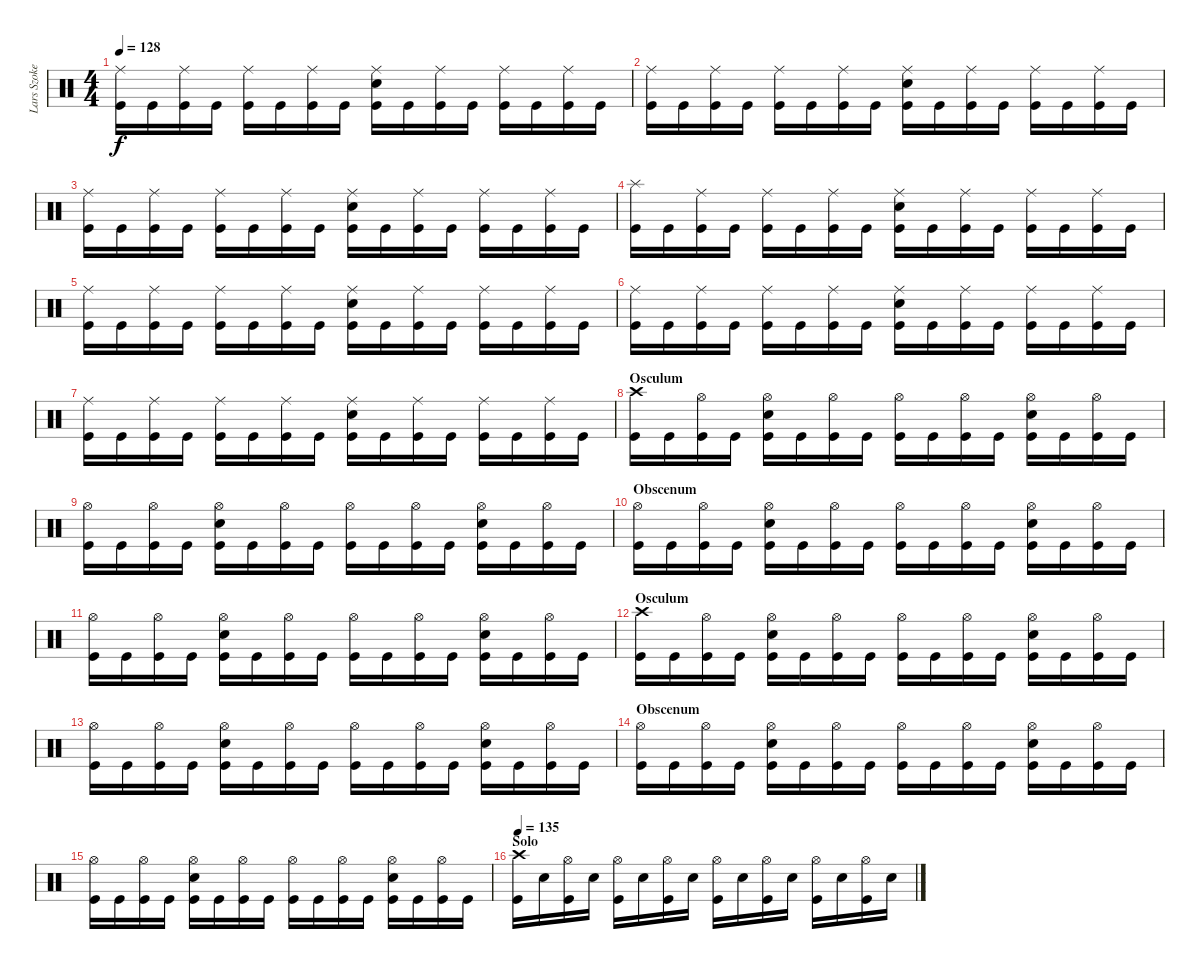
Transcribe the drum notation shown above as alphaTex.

\track ("Lars Szoke" "Lars Szoke") {instrument percussion}
\staff {score}
\articulation defaults
\ts (4 4)
\tempo 128
\clef neutral
\ks c
("Ride (middle)" "Kick (hit)").16{dy f} "Kick (hit)".16 ("Ride (middle)" "Kick (hit)").16 "Kick (hit)".16 ("Ride (middle)" "Kick (hit)").16 "Kick (hit)".16 ("Ride (middle)" "Kick (hit)").16 "Kick (hit)".16 ("Ride (middle)" "Snare (hit) 2" "Kick (hit)").16 "Kick (hit)".16 ("Ride (middle)" "Kick (hit)").16 "Kick (hit)".16 ("Ride (middle)" "Kick (hit)").16 "Kick (hit)".16 ("Ride (middle)" "Kick (hit)").16 "Kick (hit)".16 |
("Ride (middle)" "Kick (hit)").16 "Kick (hit)".16 ("Ride (middle)" "Kick (hit)").16 "Kick (hit)".16 ("Ride (middle)" "Kick (hit)").16 "Kick (hit)".16 ("Ride (middle)" "Kick (hit)").16 "Kick (hit)".16 ("Ride (middle)" "Snare (hit) 2" "Kick (hit)").16 "Kick (hit)".16 ("Ride (middle)" "Kick (hit)").16 "Kick (hit)".16 ("Ride (middle)" "Kick (hit)").16 "Kick (hit)".16 ("Ride (middle)" "Kick (hit)").16 "Kick (hit)".16 |
("Ride (middle)" "Kick (hit)").16 "Kick (hit)".16 ("Ride (middle)" "Kick (hit)").16 "Kick (hit)".16 ("Ride (middle)" "Kick (hit)").16 "Kick (hit)".16 ("Ride (middle)" "Kick (hit)").16 "Kick (hit)".16 ("Ride (middle)" "Snare (hit) 2" "Kick (hit)").16 "Kick (hit)".16 ("Ride (middle)" "Kick (hit)").16 "Kick (hit)".16 ("Ride (middle)" "Kick (hit)").16 "Kick (hit)".16 ("Ride (middle)" "Kick (hit)").16 "Kick (hit)".16 |
("Splash (hit)" "Kick (hit)").16 "Kick (hit)".16 ("Ride (middle)" "Kick (hit)").16 "Kick (hit)".16 ("Ride (middle)" "Kick (hit)").16 "Kick (hit)".16 ("Ride (middle)" "Kick (hit)").16 "Kick (hit)".16 ("Ride (middle)" "Snare (hit) 2" "Kick (hit)").16 "Kick (hit)".16 ("Ride (middle)" "Kick (hit)").16 "Kick (hit)".16 ("Ride (middle)" "Kick (hit)").16 "Kick (hit)".16 ("Ride (middle)" "Kick (hit)").16 "Kick (hit)".16 |
("Ride (middle)" "Kick (hit)").16 "Kick (hit)".16 ("Ride (middle)" "Kick (hit)").16 "Kick (hit)".16 ("Ride (middle)" "Kick (hit)").16 "Kick (hit)".16 ("Ride (middle)" "Kick (hit)").16 "Kick (hit)".16 ("Ride (middle)" "Snare (hit) 2" "Kick (hit)").16 "Kick (hit)".16 ("Ride (middle)" "Kick (hit)").16 "Kick (hit)".16 ("Ride (middle)" "Kick (hit)").16 "Kick (hit)".16 ("Ride (middle)" "Kick (hit)").16 "Kick (hit)".16 |
("Ride (middle)" "Kick (hit)").16 "Kick (hit)".16 ("Ride (middle)" "Kick (hit)").16 "Kick (hit)".16 ("Ride (middle)" "Kick (hit)").16 "Kick (hit)".16 ("Ride (middle)" "Kick (hit)").16 "Kick (hit)".16 ("Ride (middle)" "Snare (hit) 2" "Kick (hit)").16 "Kick (hit)".16 ("Ride (middle)" "Kick (hit)").16 "Kick (hit)".16 ("Ride (middle)" "Kick (hit)").16 "Kick (hit)".16 ("Ride (middle)" "Kick (hit)").16 "Kick (hit)".16 |
("Ride (middle)" "Kick (hit)").16 "Kick (hit)".16 ("Ride (middle)" "Kick (hit)").16 "Kick (hit)".16 ("Ride (middle)" "Kick (hit)").16 "Kick (hit)".16 ("Ride (middle)" "Kick (hit)").16 "Kick (hit)".16 ("Ride (middle)" "Snare (hit) 2" "Kick (hit)").16 "Kick (hit)".16 ("Ride (middle)" "Kick (hit)").16 "Kick (hit)".16 ("Ride (middle)" "Kick (hit)").16 "Kick (hit)".16 ("Ride (middle)" "Kick (hit)").16 "Kick (hit)".16 |
\section ("" "Osculum")
("Crash high (hit)" "Kick (hit)").16 "Kick (hit)".16 ("Hi-Hat (open)" "Kick (hit)").16 "Kick (hit)".16 ("Hi-Hat (open)" "Snare (hit) 2" "Kick (hit)").16 "Kick (hit)".16 ("Hi-Hat (open)" "Kick (hit)").16 "Kick (hit)".16 ("Hi-Hat (open)" "Kick (hit)").16 "Kick (hit)".16 ("Hi-Hat (open)" "Kick (hit)").16 "Kick (hit)".16 ("Hi-Hat (open)" "Snare (hit) 2" "Kick (hit)").16 "Kick (hit)".16 ("Hi-Hat (open)" "Kick (hit)").16 "Kick (hit)".16 |
("Hi-Hat (open)" "Kick (hit)").16 "Kick (hit)".16 ("Hi-Hat (open)" "Kick (hit)").16 "Kick (hit)".16 ("Hi-Hat (open)" "Snare (hit) 2" "Kick (hit)").16 "Kick (hit)".16 ("Hi-Hat (open)" "Kick (hit)").16 "Kick (hit)".16 ("Hi-Hat (open)" "Kick (hit)").16 "Kick (hit)".16 ("Hi-Hat (open)" "Kick (hit)").16 "Kick (hit)".16 ("Hi-Hat (open)" "Snare (hit) 2" "Kick (hit)").16 "Kick (hit)".16 ("Hi-Hat (open)" "Kick (hit)").16 "Kick (hit)".16 |
\section ("" "Obscenum")
("Hi-Hat (open)" "Kick (hit)").16 "Kick (hit)".16 ("Hi-Hat (open)" "Kick (hit)").16 "Kick (hit)".16 ("Hi-Hat (open)" "Snare (hit) 2" "Kick (hit)").16 "Kick (hit)".16 ("Hi-Hat (open)" "Kick (hit)").16 "Kick (hit)".16 ("Hi-Hat (open)" "Kick (hit)").16 "Kick (hit)".16 ("Hi-Hat (open)" "Kick (hit)").16 "Kick (hit)".16 ("Hi-Hat (open)" "Snare (hit) 2" "Kick (hit)").16 "Kick (hit)".16 ("Hi-Hat (open)" "Kick (hit)").16 "Kick (hit)".16 |
("Hi-Hat (open)" "Kick (hit)").16 "Kick (hit)".16 ("Hi-Hat (open)" "Kick (hit)").16 "Kick (hit)".16 ("Hi-Hat (open)" "Snare (hit) 2" "Kick (hit)").16 "Kick (hit)".16 ("Hi-Hat (open)" "Kick (hit)").16 "Kick (hit)".16 ("Hi-Hat (open)" "Kick (hit)").16 "Kick (hit)".16 ("Hi-Hat (open)" "Kick (hit)").16 "Kick (hit)".16 ("Hi-Hat (open)" "Snare (hit) 2" "Kick (hit)").16 "Kick (hit)".16 ("Hi-Hat (open)" "Kick (hit)").16 "Kick (hit)".16 |
\section ("" "Osculum")
("Crash high (hit)" "Kick (hit)").16 "Kick (hit)".16 ("Hi-Hat (open)" "Kick (hit)").16 "Kick (hit)".16 ("Hi-Hat (open)" "Snare (hit) 2" "Kick (hit)").16 "Kick (hit)".16 ("Hi-Hat (open)" "Kick (hit)").16 "Kick (hit)".16 ("Hi-Hat (open)" "Kick (hit)").16 "Kick (hit)".16 ("Hi-Hat (open)" "Kick (hit)").16 "Kick (hit)".16 ("Hi-Hat (open)" "Snare (hit) 2" "Kick (hit)").16 "Kick (hit)".16 ("Hi-Hat (open)" "Kick (hit)").16 "Kick (hit)".16 |
("Hi-Hat (open)" "Kick (hit)").16 "Kick (hit)".16 ("Hi-Hat (open)" "Kick (hit)").16 "Kick (hit)".16 ("Hi-Hat (open)" "Snare (hit) 2" "Kick (hit)").16 "Kick (hit)".16 ("Hi-Hat (open)" "Kick (hit)").16 "Kick (hit)".16 ("Hi-Hat (open)" "Kick (hit)").16 "Kick (hit)".16 ("Hi-Hat (open)" "Kick (hit)").16 "Kick (hit)".16 ("Hi-Hat (open)" "Snare (hit) 2" "Kick (hit)").16 "Kick (hit)".16 ("Hi-Hat (open)" "Kick (hit)").16 "Kick (hit)".16 |
\section ("" "Obscenum")
("Hi-Hat (open)" "Kick (hit)").16 "Kick (hit)".16 ("Hi-Hat (open)" "Kick (hit)").16 "Kick (hit)".16 ("Hi-Hat (open)" "Snare (hit) 2" "Kick (hit)").16 "Kick (hit)".16 ("Hi-Hat (open)" "Kick (hit)").16 "Kick (hit)".16 ("Hi-Hat (open)" "Kick (hit)").16 "Kick (hit)".16 ("Hi-Hat (open)" "Kick (hit)").16 "Kick (hit)".16 ("Hi-Hat (open)" "Snare (hit) 2" "Kick (hit)").16 "Kick (hit)".16 ("Hi-Hat (open)" "Kick (hit)").16 "Kick (hit)".16 |
("Hi-Hat (open)" "Kick (hit)").16 "Kick (hit)".16 ("Hi-Hat (open)" "Kick (hit)").16 "Kick (hit)".16 ("Hi-Hat (open)" "Snare (hit) 2" "Kick (hit)").16 "Kick (hit)".16 ("Hi-Hat (open)" "Kick (hit)").16 "Kick (hit)".16 ("Hi-Hat (open)" "Kick (hit)").16 "Kick (hit)".16 ("Hi-Hat (open)" "Kick (hit)").16 "Kick (hit)".16 ("Hi-Hat (open)" "Snare (hit) 2" "Kick (hit)").16 "Kick (hit)".16 ("Hi-Hat (open)" "Kick (hit)").16 "Kick (hit)".16 |
\section ("" "Solo")
\tempo 135
("Crash high (hit)" "Kick (hit)").16 "Snare (hit) 2".16 ("Hi-Hat (open)" "Kick (hit)").16 "Snare (hit) 2".16 ("Hi-Hat (open)" "Kick (hit)").16 "Snare (hit) 2".16 ("Hi-Hat (open)" "Kick (hit)").16 "Snare (hit) 2".16 ("Hi-Hat (open)" "Kick (hit)").16 "Snare (hit) 2".16 ("Hi-Hat (open)" "Kick (hit)").16 "Snare (hit) 2".16 ("Hi-Hat (open)" "Kick (hit)").16 "Snare (hit) 2".16 ("Hi-Hat (open)" "Kick (hit)").16 "Snare (hit) 2".16
